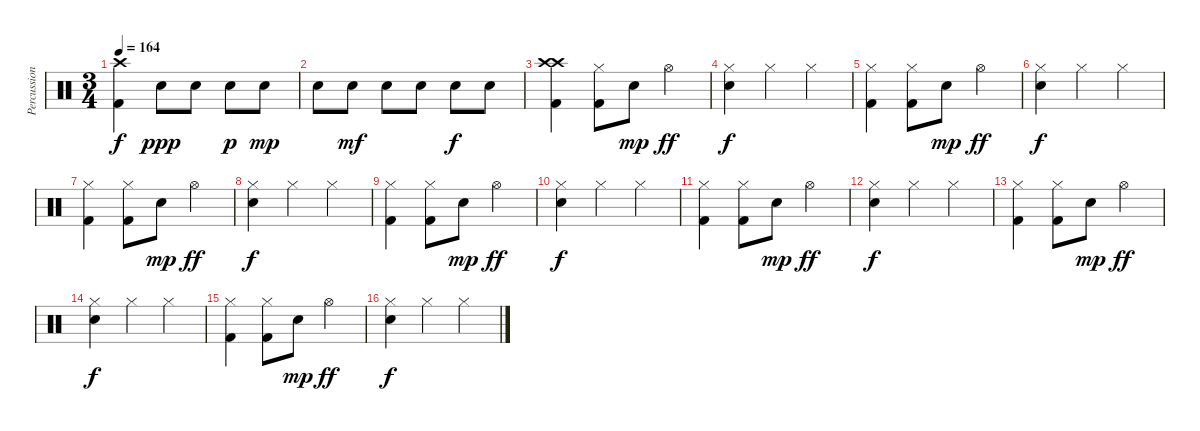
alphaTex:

\track ("Percussion" "Percussion") {instrument percussion}
\staff {score}
\articulation defaults
\ts (3 4)
\tempo 164
\clef neutral
\ks c
("Crash high (hit)" "Kick (hit) 2").4{dy f} "Snare (hit) 2".8{dy ppp} "Snare (hit) 2".8 "Snare (hit) 2".8{dy p} "Snare (hit) 2".8{dy mp} |
"Snare (hit) 2".8 "Snare (hit) 2".8{dy mf} "Snare (hit) 2".8 "Snare (hit) 2".8 "Snare (hit) 2".8{dy f} "Snare (hit) 2".8 |
("Crash high (hit)" "Crash high (hit)" "Kick (hit) 2").4 ("Hi-Hat (closed)" "Kick (hit) 2").8 "Snare (hit) 2".8{dy mp} "Hi-Hat (open)".4{dy ff} |
("Hi-Hat (closed)" "Snare (hit) 2").4{dy f} "Hi-Hat (closed)".4 "Hi-Hat (closed)".4 |
("Hi-Hat (closed)" "Kick (hit) 2").4 ("Hi-Hat (closed)" "Kick (hit) 2").8 "Snare (hit) 2".8{dy mp} "Hi-Hat (open)".4{dy ff} |
("Hi-Hat (closed)" "Snare (hit) 2").4{dy f} "Hi-Hat (closed)".4 "Hi-Hat (closed)".4 |
("Hi-Hat (closed)" "Kick (hit) 2").4 ("Hi-Hat (closed)" "Kick (hit) 2").8 "Snare (hit) 2".8{dy mp} "Hi-Hat (open)".4{dy ff} |
("Hi-Hat (closed)" "Snare (hit) 2").4{dy f} "Hi-Hat (closed)".4 "Hi-Hat (closed)".4 |
("Hi-Hat (closed)" "Kick (hit) 2").4 ("Hi-Hat (closed)" "Kick (hit) 2").8 "Snare (hit) 2".8{dy mp} "Hi-Hat (open)".4{dy ff} |
("Hi-Hat (closed)" "Snare (hit) 2").4{dy f} "Hi-Hat (closed)".4 "Hi-Hat (closed)".4 |
("Hi-Hat (closed)" "Kick (hit) 2").4 ("Hi-Hat (closed)" "Kick (hit) 2").8 "Snare (hit) 2".8{dy mp} "Hi-Hat (open)".4{dy ff} |
("Hi-Hat (closed)" "Snare (hit) 2").4{dy f} "Hi-Hat (closed)".4 "Hi-Hat (closed)".4 |
("Hi-Hat (closed)" "Kick (hit) 2").4 ("Hi-Hat (closed)" "Kick (hit) 2").8 "Snare (hit) 2".8{dy mp} "Hi-Hat (open)".4{dy ff} |
("Hi-Hat (closed)" "Snare (hit) 2").4{dy f} "Hi-Hat (closed)".4 "Hi-Hat (closed)".4 |
("Hi-Hat (closed)" "Kick (hit) 2").4 ("Hi-Hat (closed)" "Kick (hit) 2").8 "Snare (hit) 2".8{dy mp} "Hi-Hat (open)".4{dy ff} |
("Hi-Hat (closed)" "Snare (hit) 2").4{dy f} "Hi-Hat (closed)".4 "Hi-Hat (closed)".4
